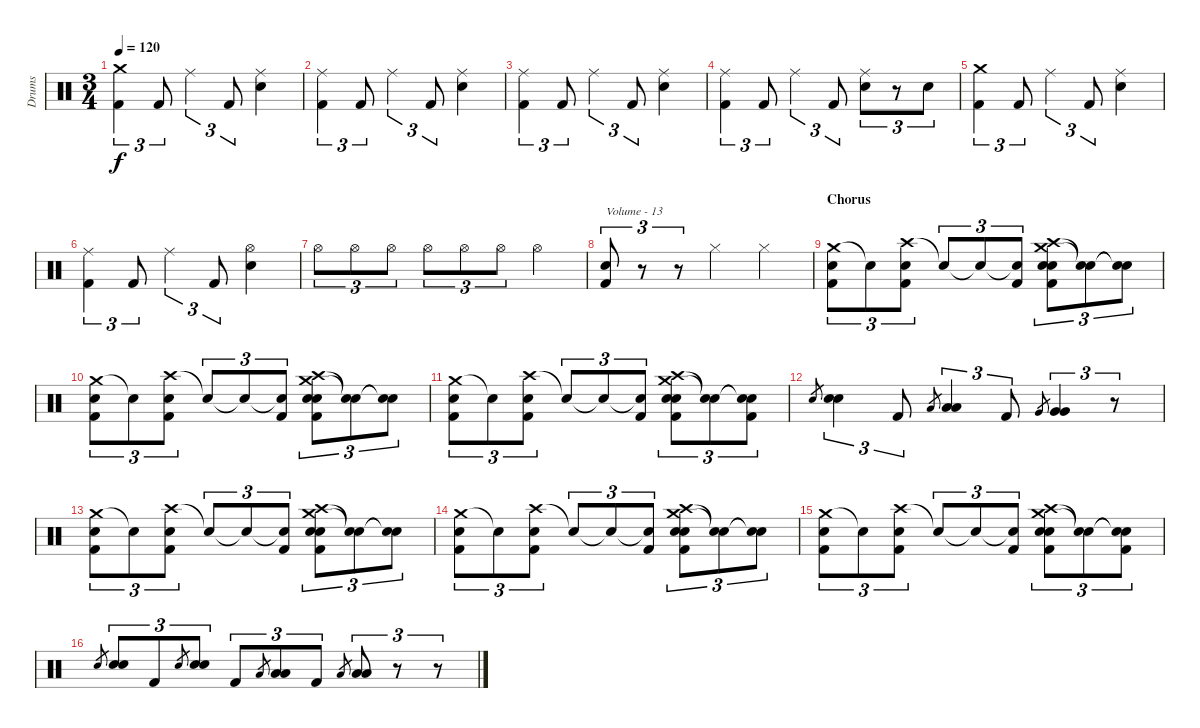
\track ("Drums" "Drums") {instrument percussion}
\staff {score}
\articulation defaults
\ts (3 4)
\tempo 120
\clef neutral
\ks c
("Crash medium (hit)" "Kick (hit) 2").4{tu (3 2) dy f} "Kick (hit) 2".8{tu (3 2)} "Ride (middle)".4{tu (3 2)} "Kick (hit) 2".8{tu (3 2)} ("Ride (middle)" "Snare (hit) 2").4 |
("Ride (middle)" "Kick (hit) 2").4{tu (3 2)} "Kick (hit) 2".8{tu (3 2)} "Ride (middle)".4{tu (3 2)} "Kick (hit) 2".8{tu (3 2)} ("Ride (middle)" "Snare (hit) 2").4 |
("Ride (middle)" "Kick (hit) 2").4{tu (3 2)} "Kick (hit) 2".8{tu (3 2)} "Ride (middle)".4{tu (3 2)} "Kick (hit) 2".8{tu (3 2)} ("Ride (middle)" "Snare (hit) 2").4 |
("Ride (middle)" "Kick (hit) 2").4{tu (3 2)} "Kick (hit) 2".8{tu (3 2)} "Ride (middle)".4{tu (3 2)} "Kick (hit) 2".8{tu (3 2)} ("Ride (middle)" "Snare (hit) 2").8{tu (3 2)} r.8{tu (3 2)} "Snare (hit) 2".8{tu (3 2)} |
("Crash medium (hit)" "Kick (hit) 2").4{tu (3 2)} "Kick (hit) 2".8{tu (3 2)} "Ride (middle)".4{tu (3 2)} "Kick (hit) 2".8{tu (3 2)} ("Ride (middle)" "Snare (hit) 2").4 |
("Ride (middle)" "Kick (hit) 2").4{tu (3 2)} "Kick (hit) 2".8{tu (3 2)} "Ride (middle)".4{tu (3 2)} "Kick (hit) 2".8{tu (3 2)} ("Hi-Hat (open)" "Snare (hit) 2").4 |
"Hi-Hat (open)".8{tu (3 2)} "Hi-Hat (open)".8{tu (3 2)} "Hi-Hat (open)".8{tu (3 2)} "Hi-Hat (open)".8{tu (3 2)} "Hi-Hat (open)".8{tu (3 2)} "Hi-Hat (open)".8{tu (3 2)} "Hi-Hat (open)".4 |
("Snare (hit) 2" "Kick (hit) 2").8{tu (3 2) txt "Volume - 13" volume 13} r.8{tu (3 2)} r.8{tu (3 2)} "Hi-Hat (closed)".4 "Hi-Hat (closed)".4 |
\section ("" "Chorus")
("Crash medium (hit)" "Snare (hit) 2" "Kick (hit) 2").8{tu (3 2)} "Snare (hit)"{t}.8{tu (3 2)} ("Crash high (hit)" "Snare (hit) 2" "Kick (hit) 2").8{tu (3 2)} "Snare (hit)"{t}.8{tu (3 2)} "Snare (hit)"{t}.8{tu (3 2)} ("Snare (hit)"{t} "Kick (hit) 2").8{tu (3 2)} ("Crash medium (hit)" "Crash high (hit)" "Snare (hit) 2" "Electric Snare (hit)" "Kick (hit) 2").8{tu (3 2)} ("Snare (hit)"{t} "Snare (hit)"{t}).8{tu (3 2)} ("Snare (hit)"{t} "Snare (hit)"{t}).8{tu (3 2)} |
("Crash medium (hit)" "Snare (hit) 2" "Kick (hit) 2").8{tu (3 2)} "Snare (hit)"{t}.8{tu (3 2)} ("Crash high (hit)" "Snare (hit) 2" "Kick (hit) 2").8{tu (3 2)} "Snare (hit)"{t}.8{tu (3 2)} "Snare (hit)"{t}.8{tu (3 2)} ("Snare (hit)"{t} "Kick (hit) 2").8{tu (3 2)} ("Crash medium (hit)" "Crash high (hit)" "Snare (hit) 2" "Electric Snare (hit)" "Kick (hit) 2").8{tu (3 2)} ("Snare (hit)"{t} "Snare (hit)"{t}).8{tu (3 2)} ("Snare (hit)"{t} "Snare (hit)"{t}).8{tu (3 2)} |
("Crash medium (hit)" "Snare (hit) 2" "Kick (hit) 2").8{tu (3 2)} "Snare (hit)"{t}.8{tu (3 2)} ("Crash high (hit)" "Snare (hit) 2" "Kick (hit) 2").8{tu (3 2)} "Snare (hit)"{t}.8{tu (3 2)} "Snare (hit)"{t}.8{tu (3 2)} ("Snare (hit)"{t} "Kick (hit) 2").8{tu (3 2)} ("Crash medium (hit)" "Crash high (hit)" "Snare (hit) 2" "Electric Snare (hit)" "Kick (hit) 2").8{tu (3 2)} ("Snare (hit)"{t} "Snare (hit)"{t}).8{tu (3 2)} ("Snare (hit)"{t} "Snare (hit)"{t} "Kick (hit) 2").8{tu (3 2)} |
"Electric Snare (hit)".8{gr} ("Electric Snare (hit)" "Electric Snare (hit)").4{tu (3 2)} "Kick (hit) 2".8{tu (3 2)} "Low Tom (hit)".8{gr} ("Low Tom (hit)" "Low Tom (hit)").4{tu (3 2)} "Kick (hit) 2".8{tu (3 2)} "Very Low Tom (hit)".8{gr} ("Very Low Tom (hit)" "Very Low Tom (hit)").4{tu (3 2)} r.8{tu (3 2)} |
("Crash medium (hit)" "Snare (hit) 2" "Kick (hit) 2").8{tu (3 2)} "Snare (hit)"{t}.8{tu (3 2)} ("Crash high (hit)" "Snare (hit) 2" "Kick (hit) 2").8{tu (3 2)} "Snare (hit)"{t}.8{tu (3 2)} "Snare (hit)"{t}.8{tu (3 2)} ("Snare (hit)"{t} "Kick (hit) 2").8{tu (3 2)} ("Crash medium (hit)" "Crash high (hit)" "Snare (hit) 2" "Electric Snare (hit)" "Kick (hit) 2").8{tu (3 2)} ("Snare (hit)"{t} "Snare (hit)"{t}).8{tu (3 2)} ("Snare (hit)"{t} "Snare (hit)"{t}).8{tu (3 2)} |
("Crash medium (hit)" "Snare (hit) 2" "Kick (hit) 2").8{tu (3 2)} "Snare (hit)"{t}.8{tu (3 2)} ("Crash high (hit)" "Snare (hit) 2" "Kick (hit) 2").8{tu (3 2)} "Snare (hit)"{t}.8{tu (3 2)} "Snare (hit)"{t}.8{tu (3 2)} ("Snare (hit)"{t} "Kick (hit) 2").8{tu (3 2)} ("Crash medium (hit)" "Crash high (hit)" "Snare (hit) 2" "Electric Snare (hit)" "Kick (hit) 2").8{tu (3 2)} ("Snare (hit)"{t} "Snare (hit)"{t}).8{tu (3 2)} ("Snare (hit)"{t} "Snare (hit)"{t}).8{tu (3 2)} |
("Crash medium (hit)" "Snare (hit) 2" "Kick (hit) 2").8{tu (3 2)} "Snare (hit)"{t}.8{tu (3 2)} ("Crash high (hit)" "Snare (hit) 2" "Kick (hit) 2").8{tu (3 2)} "Snare (hit)"{t}.8{tu (3 2)} "Snare (hit)"{t}.8{tu (3 2)} ("Snare (hit)"{t} "Kick (hit) 2").8{tu (3 2)} ("Crash medium (hit)" "Crash high (hit)" "Snare (hit) 2" "Electric Snare (hit)" "Kick (hit) 2").8{tu (3 2)} ("Snare (hit)"{t} "Snare (hit)"{t}).8{tu (3 2)} ("Snare (hit)"{t} "Snare (hit)"{t} "Kick (hit) 2").8{tu (3 2)} |
"Electric Snare (hit)".8{gr} ("Electric Snare (hit)" "Electric Snare (hit)").8{tu (3 2)} "Kick (hit) 2".8{tu (3 2)} "Electric Snare (hit)".8{gr} ("Electric Snare (hit)" "Electric Snare (hit)").8{tu (3 2)} "Kick (hit) 2".8{tu (3 2)} "Low Tom (hit)".8{gr} ("Low Tom (hit)" "Low Tom (hit)").8{tu (3 2)} "Kick (hit) 2".8{tu (3 2)} "Low Tom (hit)".8{gr} ("Low Tom (hit)" "Low Tom (hit)").8{tu (3 2)} r.8{tu (3 2)} r.8{tu (3 2)}
